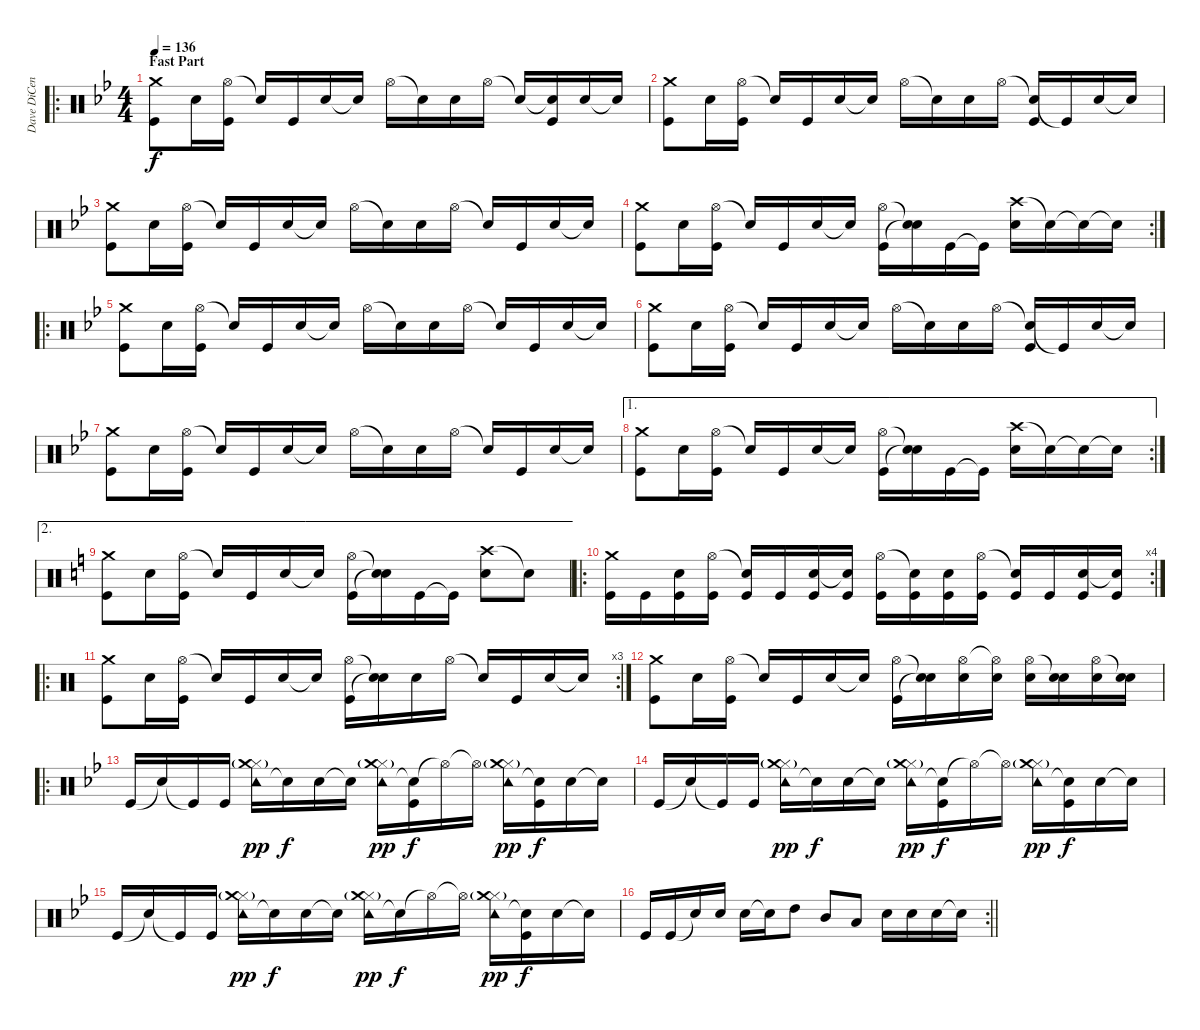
\track ("Dave DiCenso" "Dave DiCen") {instrument percussion}
\staff {score}
\articulation defaults
\ro
\ts (4 4)
\section ("" "Fast Part")
\tempo 135
\tempo 136
\clef neutral
\ks bb
("Crash medium (hit)" "Kick (hit)").8{dy f} "Electric Snare (hit)".16 ("Hi-Hat (open)" "Kick (hit)").16 "Snare (hit)"{t}.16 "Kick (hit)".16 "Electric Snare (hit)".16 "Snare (hit)"{t}.16 "Hi-Hat (open)".16 "Snare (hit)"{t}.16 "Electric Snare (hit)".16 "Hi-Hat (open)".16 "Snare (hit)"{t}.16 ("Snare (hit)"{t} "Kick (hit)").16 "Electric Snare (hit)".16 "Snare (hit)"{t}.16 |
("Crash medium (hit)" "Kick (hit)").8 "Electric Snare (hit)".16 ("Hi-Hat (open)" "Kick (hit)").16 "Snare (hit)"{t}.16 "Kick (hit)".16 "Electric Snare (hit)".16 "Snare (hit)"{t}.16 "Hi-Hat (open)".16 "Snare (hit)"{t}.16 "Electric Snare (hit)".16 "Hi-Hat (open)".16 ("Snare (hit)"{t} "Kick (hit)").16 "Kick (hit)"{t}.16 "Electric Snare (hit)".16 "Snare (hit)"{t}.16 |
("Crash medium (hit)" "Kick (hit)").8 "Electric Snare (hit)".16 ("Hi-Hat (open)" "Kick (hit)").16 "Snare (hit)"{t}.16 "Kick (hit)".16 "Electric Snare (hit)".16 "Snare (hit)"{t}.16 "Hi-Hat (open)".16 "Snare (hit)"{t}.16 "Electric Snare (hit)".16 "Hi-Hat (open)".16 "Snare (hit)"{t}.16 "Kick (hit)".16 "Electric Snare (hit)".16 "Snare (hit)"{t}.16 |
\rc 2
("Crash medium (hit)" "Kick (hit)").8 "Electric Snare (hit)".16 ("Hi-Hat (open)" "Kick (hit)").16 "Snare (hit)"{t}.16 "Kick (hit)".16 "Electric Snare (hit)".16 "Snare (hit)"{t}.16 ("Hi-Hat (open)" "Kick (hit)").16 ("Snare (hit)"{t} "Snare (hit)"{t}).16 "Kick (hit)".16 "Kick (hit)"{t}.16 ("Crash high (hit)" "Electric Snare (hit)").16 "Electric Snare (hit)"{t}.16 "Electric Snare (hit)"{t}.16 "Snare (hit)"{t}.16 |
\ro
("Crash medium (hit)" "Kick (hit)").8 "Electric Snare (hit)".16 ("Hi-Hat (open)" "Kick (hit)").16 "Snare (hit)"{t}.16 "Kick (hit)".16 "Electric Snare (hit)".16 "Snare (hit)"{t}.16 "Hi-Hat (open)".16 "Snare (hit)"{t}.16 "Electric Snare (hit)".16 "Hi-Hat (open)".16 "Snare (hit)"{t}.16 "Kick (hit)".16 "Electric Snare (hit)".16 "Snare (hit)"{t}.16 |
("Crash medium (hit)" "Kick (hit)").8 "Electric Snare (hit)".16 ("Hi-Hat (open)" "Kick (hit)").16 "Snare (hit)"{t}.16 "Kick (hit)".16 "Electric Snare (hit)".16 "Snare (hit)"{t}.16 "Hi-Hat (open)".16 "Snare (hit)"{t}.16 "Electric Snare (hit)".16 "Hi-Hat (open)".16 ("Snare (hit)"{t} "Kick (hit)").16 "Kick (hit)"{t}.16 "Electric Snare (hit)".16 "Snare (hit)"{t}.16 |
("Crash medium (hit)" "Kick (hit)").8 "Electric Snare (hit)".16 ("Hi-Hat (open)" "Kick (hit)").16 "Snare (hit)"{t}.16 "Kick (hit)".16 "Electric Snare (hit)".16 "Snare (hit)"{t}.16 "Hi-Hat (open)".16 "Snare (hit)"{t}.16 "Electric Snare (hit)".16 "Hi-Hat (open)".16 "Snare (hit)"{t}.16 "Kick (hit)".16 "Electric Snare (hit)".16 "Snare (hit)"{t}.16 |
\ae 1
\rc 2
("Crash medium (hit)" "Kick (hit)").8 "Electric Snare (hit)".16 ("Hi-Hat (open)" "Kick (hit)").16 "Snare (hit)"{t}.16 "Kick (hit)".16 "Electric Snare (hit)".16 "Snare (hit)"{t}.16 ("Hi-Hat (open)" "Kick (hit)").16 ("Snare (hit)"{t} "Snare (hit)"{t}).16 "Kick (hit)".16 "Kick (hit)"{t}.16 ("Crash high (hit)" "Electric Snare (hit)").16 "Electric Snare (hit)"{t}.16 "Electric Snare (hit)"{t}.16 "Snare (hit)"{t}.16 |
\ae 2
\ks c
("Crash medium (hit)" "Kick (hit)").8 "Electric Snare (hit)".16 ("Hi-Hat (open)" "Kick (hit)").16 "Snare (hit)"{t}.16 "Kick (hit)".16 "Electric Snare (hit)".16 "Snare (hit)"{t}.16 ("Hi-Hat (open)" "Kick (hit)").16 ("Snare (hit)"{t} "Snare (hit)"{t}).16 "Kick (hit)".16 "Kick (hit)"{t}.16 ("Crash high (hit)" "Electric Snare (hit)").8 "Electric Snare (hit)"{t}.8 |
\ro
\rc 4
("Crash medium (hit)" "Kick (hit)").16 "Kick (hit)".16 ("Electric Snare (hit)" "Kick (hit)").16 ("Hi-Hat (open)" "Kick (hit)").16 ("Snare (hit)"{t} "Kick (hit)").16 "Kick (hit)".16 ("Electric Snare (hit)" "Kick (hit)").16 ("Snare (hit)"{t} "Kick (hit)").16 ("Hi-Hat (open)" "Kick (hit)").16 ("Snare (hit)"{t} "Kick (hit)").16 ("Electric Snare (hit)" "Kick (hit)").16 ("Hi-Hat (open)" "Kick (hit)").16 ("Snare (hit)"{t} "Kick (hit)").16 "Kick (hit)".16 ("Electric Snare (hit)" "Kick (hit)").16 ("Snare (hit)"{t} "Kick (hit)").16 |
\ro
\rc 3
("Crash medium (hit)" "Kick (hit)").8 "Electric Snare (hit)".16 ("Hi-Hat (open)" "Kick (hit)").16 "Snare (hit)"{t}.16 "Kick (hit)".16 "Electric Snare (hit)".16 "Snare (hit)"{t}.16 ("Hi-Hat (open)" "Kick (hit)").16 ("Snare (hit)"{t} "Snare (hit)"{t}).16 "Electric Snare (hit)".16 "Hi-Hat (open)".16 "Snare (hit)"{t}.16 "Kick (hit)".16 "Electric Snare (hit)".16 "Snare (hit)"{t}.16 |
("Crash medium (hit)" "Kick (hit)").8 "Electric Snare (hit)".16 ("Hi-Hat (open)" "Kick (hit)").16 "Snare (hit)"{t}.16 "Kick (hit)".16 "Electric Snare (hit)".16 "Snare (hit)"{t}.16 ("Hi-Hat (open)" "Kick (hit)").16 ("Snare (hit)"{t} "Snare (hit)"{t}).16 ("Hi-Hat (open)" "Electric Snare (hit)").16 ("Hi-Hat (open)"{t} "Electric Snare (hit)").16 ("Hi-Hat (open)" "Electric Snare (hit)").16 ("Snare (hit)"{t} "Electric Snare (hit)").16 ("Hi-Hat (open)" "Electric Snare (hit)").16 ("Snare (hit)"{t} "Electric Snare (hit)").16 |
\ro
\ks bb "Kick (hit)".16 "Snare (hit)"{t}.16 "Kick (hit)"{t}.16 "Kick (hit)".16
("Tambourine (hit)" "Hi-Hat (closed)" "Crash medium (hit)"{g}).16{dy pp} "Snare (hit)"{t}.16{dy f} "Electric Snare (hit)".16 "Snare (hit)"{t}.16 ("Tambourine (hit)" "Hi-Hat (closed)" "Crash medium (hit)"{g}).16{dy pp} ("Snare (hit)"{t} "Kick (hit)").16{dy f} "Hi-Hat (open)"{t}.16 "Hi-Hat (open)"{t}.16 ("Tambourine (hit)" "Hi-Hat (closed)" "Crash medium (hit)"{g}).16{dy pp} ("Snare (hit)"{t} "Kick (hit)").16{dy f} "Electric Snare (hit)".16 "Snare (hit)"{t}.16 |
"Kick (hit)".16 "Snare (hit)"{t}.16 "Kick (hit)"{t}.16 "Kick (hit)".16 ("Tambourine (hit)" "Hi-Hat (closed)" "Crash medium (hit)"{g}).16{dy pp} "Snare (hit)"{t}.16{dy f} "Electric Snare (hit)".16 "Snare (hit)"{t}.16 ("Tambourine (hit)" "Hi-Hat (closed)" "Crash medium (hit)"{g}).16{dy pp} ("Snare (hit)"{t} "Kick (hit)").16{dy f} "Hi-Hat (open)"{t}.16 "Hi-Hat (open)"{t}.16 ("Tambourine (hit)" "Hi-Hat (closed)" "Crash medium (hit)"{g}).16{dy pp} ("Snare (hit)"{t} "Kick (hit)").16{dy f} "Electric Snare (hit)".16 "Snare (hit)"{t}.16 |
"Kick (hit)".16 "Snare (hit)"{t}.16 "Kick (hit)"{t}.16 "Kick (hit)".16 ("Tambourine (hit)" "Hi-Hat (closed)" "Crash medium (hit)"{g}).16{dy pp} "Snare (hit)"{t}.16{dy f} "Electric Snare (hit)".16 "Snare (hit)"{t}.16 ("Tambourine (hit)" "Hi-Hat (closed)" "Crash medium (hit)"{g}).16{dy pp} "Snare (hit)"{t}.16{dy f} "Hi-Hat (open)"{t}.16 "Hi-Hat (open)"{t}.16 ("Tambourine (hit)" "Hi-Hat (closed)" "Crash medium (hit)"{g}).16{dy pp} ("Snare (hit)"{t} "Kick (hit)").16{dy f} "Electric Snare (hit)".16 "Snare (hit)"{t}.16 |
\rc 2
\barLineRight lightlight "Kick (hit)".16 "Kick (hit)".16 "Snare (hit)"{t}.16 "Electric Snare (hit)".16 "Electric Snare (hit)".16 "Snare (hit)"{t}.16 "High Tom (hit)".8 "Mid Tom (hit)".8 "Low Tom (hit)".8 "Electric Snare (hit)".16 "Electric Snare (hit)".16 "Electric Snare (hit)".16 "Snare (hit)"{t}.16
